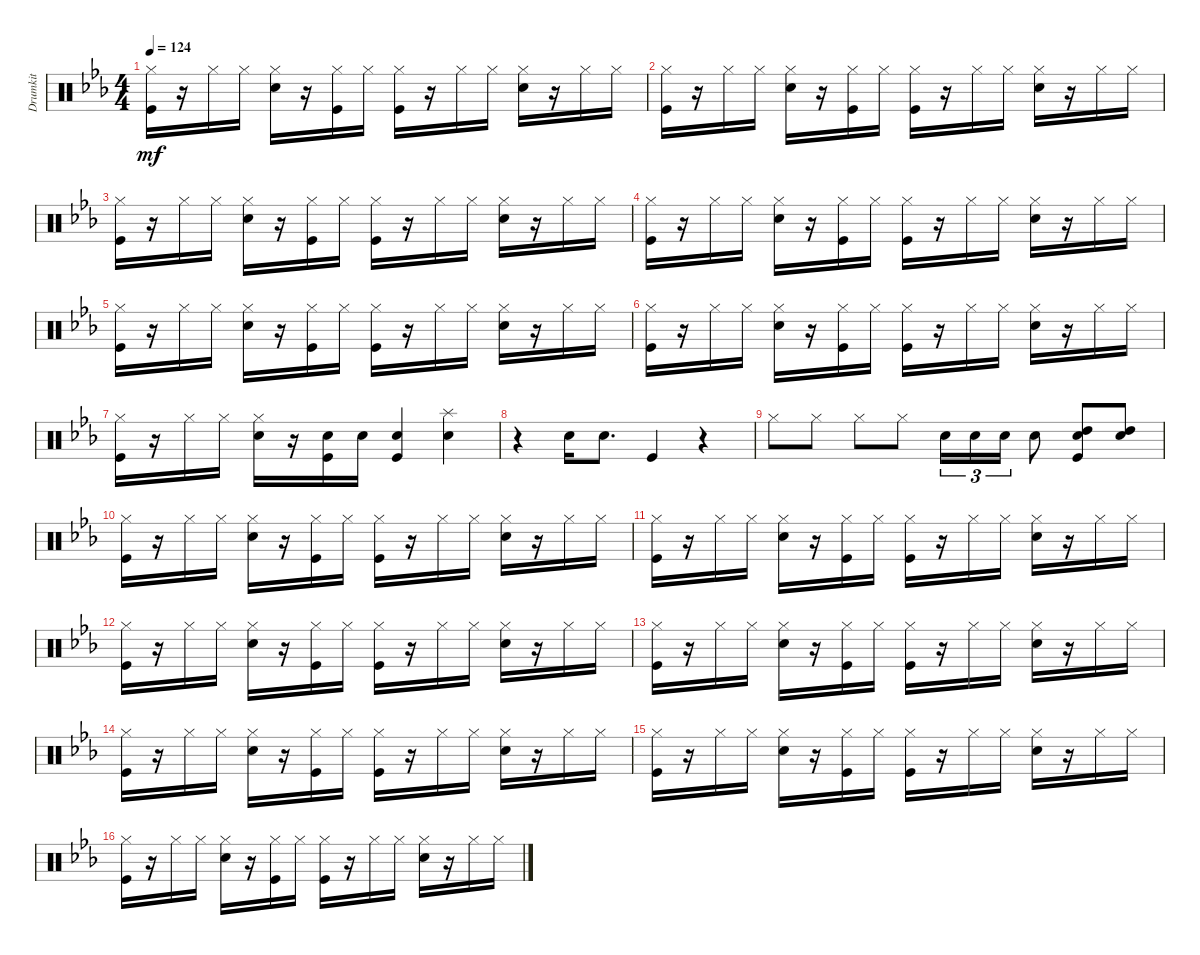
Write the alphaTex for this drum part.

\track ("Drumkit" "Drumkit") {instrument percussion}
\staff {score}
\articulation defaults
\ts (4 4)
\tempo 124
\clef neutral
\ks eb
("Hi-Hat (closed)" "Kick (hit)").16{dy mf} r.16 "Hi-Hat (closed)".16 "Hi-Hat (closed)".16 ("Hi-Hat (closed)" "Snare (hit) 2").16 r.16 ("Hi-Hat (closed)" "Kick (hit)").16 "Hi-Hat (closed)".16 ("Hi-Hat (closed)" "Kick (hit)").16 r.16 "Hi-Hat (closed)".16 "Hi-Hat (closed)".16 ("Hi-Hat (closed)" "Snare (hit) 2").16 r.16 "Hi-Hat (closed)".16 "Hi-Hat (closed)".16 |
("Hi-Hat (closed)" "Kick (hit)").16 r.16 "Hi-Hat (closed)".16 "Hi-Hat (closed)".16 ("Hi-Hat (closed)" "Snare (hit) 2").16 r.16 ("Hi-Hat (closed)" "Kick (hit)").16 "Hi-Hat (closed)".16 ("Hi-Hat (closed)" "Kick (hit)").16 r.16 "Hi-Hat (closed)".16 "Hi-Hat (closed)".16 ("Hi-Hat (closed)" "Snare (hit) 2").16 r.16 "Hi-Hat (closed)".16 "Hi-Hat (closed)".16 |
("Hi-Hat (closed)" "Kick (hit)").16 r.16 "Hi-Hat (closed)".16 "Hi-Hat (closed)".16 ("Hi-Hat (closed)" "Snare (hit) 2").16 r.16 ("Hi-Hat (closed)" "Kick (hit)").16 "Hi-Hat (closed)".16 ("Hi-Hat (closed)" "Kick (hit)").16 r.16 "Hi-Hat (closed)".16 "Hi-Hat (closed)".16 ("Hi-Hat (closed)" "Snare (hit) 2").16 r.16 "Hi-Hat (closed)".16 "Hi-Hat (closed)".16 |
("Hi-Hat (closed)" "Kick (hit)").16 r.16 "Hi-Hat (closed)".16 "Hi-Hat (closed)".16 ("Hi-Hat (closed)" "Snare (hit) 2").16 r.16 ("Hi-Hat (closed)" "Kick (hit)").16 "Hi-Hat (closed)".16 ("Hi-Hat (closed)" "Kick (hit)").16 r.16 "Hi-Hat (closed)".16 "Hi-Hat (closed)".16 ("Hi-Hat (closed)" "Snare (hit) 2").16 r.16 "Hi-Hat (closed)".16 "Hi-Hat (closed)".16 |
("Hi-Hat (closed)" "Kick (hit)").16 r.16 "Hi-Hat (closed)".16 "Hi-Hat (closed)".16 ("Hi-Hat (closed)" "Snare (hit) 2").16 r.16 ("Hi-Hat (closed)" "Kick (hit)").16 "Hi-Hat (closed)".16 ("Hi-Hat (closed)" "Kick (hit)").16 r.16 "Hi-Hat (closed)".16 "Hi-Hat (closed)".16 ("Hi-Hat (closed)" "Snare (hit) 2").16 r.16 "Hi-Hat (closed)".16 "Hi-Hat (closed)".16 |
("Hi-Hat (closed)" "Kick (hit)").16 r.16 "Hi-Hat (closed)".16 "Hi-Hat (closed)".16 ("Hi-Hat (closed)" "Snare (hit) 2").16 r.16 ("Hi-Hat (closed)" "Kick (hit)").16 "Hi-Hat (closed)".16 ("Hi-Hat (closed)" "Kick (hit)").16 r.16 "Hi-Hat (closed)".16 "Hi-Hat (closed)".16 ("Hi-Hat (closed)" "Snare (hit) 2").16 r.16 "Hi-Hat (closed)".16 "Hi-Hat (closed)".16 |
("Hi-Hat (closed)" "Kick (hit)").16 r.16 "Hi-Hat (closed)".16 "Hi-Hat (closed)".16 ("Hi-Hat (closed)" "Snare (hit) 2").16 r.16 ("Kick (hit)" "Snare (hit) 2").16 "Snare (hit) 2".16 ("Kick (hit)" "Snare (hit) 2").4 ("Snare (hit) 2" "Splash (hit)").4 |
r.4 "Snare (hit) 2".16 "Snare (hit) 2".8{d} "Kick (hit)".4 r.4 |
"Hi-Hat (closed)".8 "Hi-Hat (closed)".8 "Hi-Hat (closed)".8 "Hi-Hat (closed)".8 "Snare (hit) 2".16{tu (3 2)} "Snare (hit) 2".16{tu (3 2)} "Snare (hit) 2".16{tu (3 2)} "Snare (hit) 2".8 ("Snare (hit) 2" "Kick (hit)" "High Tom (hit)").8 ("Snare (hit) 2" "High Tom (hit)").8 |
("Hi-Hat (closed)" "Kick (hit)").16 r.16 "Hi-Hat (closed)".16 "Hi-Hat (closed)".16 ("Hi-Hat (closed)" "Snare (hit) 2").16 r.16 ("Hi-Hat (closed)" "Kick (hit)").16 "Hi-Hat (closed)".16 ("Hi-Hat (closed)" "Kick (hit)").16 r.16 "Hi-Hat (closed)".16 "Hi-Hat (closed)".16 ("Hi-Hat (closed)" "Snare (hit) 2").16 r.16 "Hi-Hat (closed)".16 "Hi-Hat (closed)".16 |
("Hi-Hat (closed)" "Kick (hit)").16 r.16 "Hi-Hat (closed)".16 "Hi-Hat (closed)".16 ("Hi-Hat (closed)" "Snare (hit) 2").16 r.16 ("Hi-Hat (closed)" "Kick (hit)").16 "Hi-Hat (closed)".16 ("Hi-Hat (closed)" "Kick (hit)").16 r.16 "Hi-Hat (closed)".16 "Hi-Hat (closed)".16 ("Hi-Hat (closed)" "Snare (hit) 2").16 r.16 "Hi-Hat (closed)".16 "Hi-Hat (closed)".16 |
("Hi-Hat (closed)" "Kick (hit)").16 r.16 "Hi-Hat (closed)".16 "Hi-Hat (closed)".16 ("Hi-Hat (closed)" "Snare (hit) 2").16 r.16 ("Hi-Hat (closed)" "Kick (hit)").16 "Hi-Hat (closed)".16 ("Hi-Hat (closed)" "Kick (hit)").16 r.16 "Hi-Hat (closed)".16 "Hi-Hat (closed)".16 ("Hi-Hat (closed)" "Snare (hit) 2").16 r.16 "Hi-Hat (closed)".16 "Hi-Hat (closed)".16 |
("Hi-Hat (closed)" "Kick (hit)").16 r.16 "Hi-Hat (closed)".16 "Hi-Hat (closed)".16 ("Hi-Hat (closed)" "Snare (hit) 2").16 r.16 ("Hi-Hat (closed)" "Kick (hit)").16 "Hi-Hat (closed)".16 ("Hi-Hat (closed)" "Kick (hit)").16 r.16 "Hi-Hat (closed)".16 "Hi-Hat (closed)".16 ("Hi-Hat (closed)" "Snare (hit) 2").16 r.16 "Hi-Hat (closed)".16 "Hi-Hat (closed)".16 |
("Hi-Hat (closed)" "Kick (hit)").16 r.16 "Hi-Hat (closed)".16 "Hi-Hat (closed)".16 ("Hi-Hat (closed)" "Snare (hit) 2").16 r.16 ("Hi-Hat (closed)" "Kick (hit)").16 "Hi-Hat (closed)".16 ("Hi-Hat (closed)" "Kick (hit)").16 r.16 "Hi-Hat (closed)".16 "Hi-Hat (closed)".16 ("Hi-Hat (closed)" "Snare (hit) 2").16 r.16 "Hi-Hat (closed)".16 "Hi-Hat (closed)".16 |
("Hi-Hat (closed)" "Kick (hit)").16 r.16 "Hi-Hat (closed)".16 "Hi-Hat (closed)".16 ("Hi-Hat (closed)" "Snare (hit) 2").16 r.16 ("Hi-Hat (closed)" "Kick (hit)").16 "Hi-Hat (closed)".16 ("Hi-Hat (closed)" "Kick (hit)").16 r.16 "Hi-Hat (closed)".16 "Hi-Hat (closed)".16 ("Hi-Hat (closed)" "Snare (hit) 2").16 r.16 "Hi-Hat (closed)".16 "Hi-Hat (closed)".16 |
("Hi-Hat (closed)" "Kick (hit)").16 r.16 "Hi-Hat (closed)".16 "Hi-Hat (closed)".16 ("Hi-Hat (closed)" "Snare (hit) 2").16 r.16 ("Hi-Hat (closed)" "Kick (hit)").16 "Hi-Hat (closed)".16 ("Hi-Hat (closed)" "Kick (hit)").16 r.16 "Hi-Hat (closed)".16 "Hi-Hat (closed)".16 ("Hi-Hat (closed)" "Snare (hit) 2").16 r.16 "Hi-Hat (closed)".16 "Hi-Hat (closed)".16
